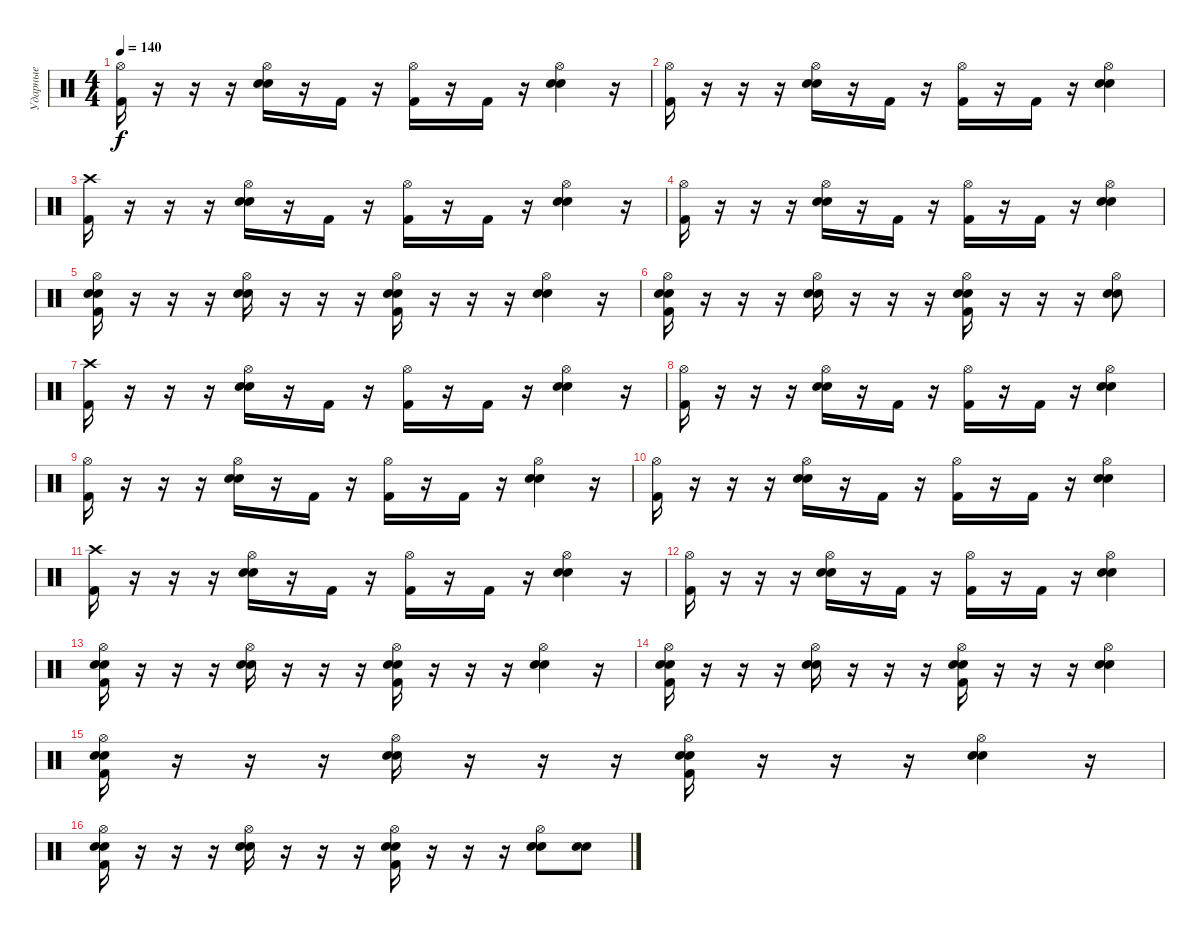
\track ("Ударные" "Ударные") {instrument percussion}
\staff {score}
\articulation defaults
\ts (4 4)
\tempo 140
\clef neutral
\ks c
("Hi-Hat (open)" "Kick (hit) 2").16{dy f} r.16 r.16 r.16 ("Hi-Hat (open)" "Electric Snare (hit)" "Snare (hit) 2").16 r.16 "Kick (hit) 2".16 r.16 ("Hi-Hat (open)" "Kick (hit) 2").16 r.16 "Kick (hit) 2".16 r.16 ("Hi-Hat (open)" "Electric Snare (hit)" "Snare (hit) 2").4 r.16 |
("Hi-Hat (open)" "Kick (hit) 2").16 r.16 r.16 r.16 ("Hi-Hat (open)" "Electric Snare (hit)" "Snare (hit) 2").16 r.16 "Kick (hit) 2".16 r.16 ("Hi-Hat (open)" "Kick (hit) 2").16 r.16 "Kick (hit) 2".16 r.16 ("Hi-Hat (open)" "Electric Snare (hit)" "Snare (hit) 2").4 |
("Crash high (hit)" "Kick (hit) 2").16 r.16 r.16 r.16 ("Hi-Hat (open)" "Electric Snare (hit)" "Snare (hit) 2").16 r.16 "Kick (hit) 2".16 r.16 ("Hi-Hat (open)" "Kick (hit) 2").16 r.16 "Kick (hit) 2".16 r.16 ("Hi-Hat (open)" "Electric Snare (hit)" "Snare (hit) 2").4 r.16 |
("Hi-Hat (open)" "Kick (hit) 2").16 r.16 r.16 r.16 ("Hi-Hat (open)" "Electric Snare (hit)" "Snare (hit) 2").16 r.16 "Kick (hit) 2".16 r.16 ("Hi-Hat (open)" "Kick (hit) 2").16 r.16 "Kick (hit) 2".16 r.16 ("Hi-Hat (open)" "Electric Snare (hit)" "Snare (hit) 2").4 |
("Hi-Hat (open)" "Kick (hit) 2" "Electric Snare (hit)" "Snare (hit) 2").16 r.16 r.16 r.16 ("Hi-Hat (open)" "Electric Snare (hit)" "Snare (hit) 2").16 r.16 r.16 r.16 ("Hi-Hat (open)" "Kick (hit) 2" "Electric Snare (hit)" "Snare (hit) 2").16 r.16 r.16 r.16 ("Hi-Hat (open)" "Electric Snare (hit)" "Snare (hit) 2").4 r.16 |
("Hi-Hat (open)" "Kick (hit) 2" "Electric Snare (hit)" "Snare (hit) 2").16 r.16 r.16 r.16 ("Hi-Hat (open)" "Electric Snare (hit)" "Snare (hit) 2").16 r.16 r.16 r.16 ("Hi-Hat (open)" "Kick (hit) 2" "Electric Snare (hit)" "Snare (hit) 2").16 r.16 r.16 r.16 ("Hi-Hat (open)" "Electric Snare (hit)" "Snare (hit) 2").8 |
("Crash high (hit)" "Kick (hit) 2").16 r.16 r.16 r.16 ("Hi-Hat (open)" "Electric Snare (hit)" "Snare (hit) 2").16 r.16 "Kick (hit) 2".16 r.16 ("Hi-Hat (open)" "Kick (hit) 2").16 r.16 "Kick (hit) 2".16 r.16 ("Hi-Hat (open)" "Electric Snare (hit)" "Snare (hit) 2").4 r.16 |
("Hi-Hat (open)" "Kick (hit) 2").16 r.16 r.16 r.16 ("Hi-Hat (open)" "Electric Snare (hit)" "Snare (hit) 2").16 r.16 "Kick (hit) 2".16 r.16 ("Hi-Hat (open)" "Kick (hit) 2").16 r.16 "Kick (hit) 2".16 r.16 ("Hi-Hat (open)" "Electric Snare (hit)" "Snare (hit) 2").4 |
("Hi-Hat (open)" "Kick (hit) 2").16 r.16 r.16 r.16 ("Hi-Hat (open)" "Electric Snare (hit)" "Snare (hit) 2").16 r.16 "Kick (hit) 2".16 r.16 ("Hi-Hat (open)" "Kick (hit) 2").16 r.16 "Kick (hit) 2".16 r.16 ("Hi-Hat (open)" "Electric Snare (hit)" "Snare (hit) 2").4 r.16 |
("Hi-Hat (open)" "Kick (hit) 2").16 r.16 r.16 r.16 ("Hi-Hat (open)" "Electric Snare (hit)" "Snare (hit) 2").16 r.16 "Kick (hit) 2".16 r.16 ("Hi-Hat (open)" "Kick (hit) 2").16 r.16 "Kick (hit) 2".16 r.16 ("Hi-Hat (open)" "Electric Snare (hit)" "Snare (hit) 2").4 |
("Crash high (hit)" "Kick (hit) 2").16 r.16 r.16 r.16 ("Hi-Hat (open)" "Electric Snare (hit)" "Snare (hit) 2").16 r.16 "Kick (hit) 2".16 r.16 ("Hi-Hat (open)" "Kick (hit) 2").16 r.16 "Kick (hit) 2".16 r.16 ("Hi-Hat (open)" "Electric Snare (hit)" "Snare (hit) 2").4 r.16 |
("Hi-Hat (open)" "Kick (hit) 2").16 r.16 r.16 r.16 ("Hi-Hat (open)" "Electric Snare (hit)" "Snare (hit) 2").16 r.16 "Kick (hit) 2".16 r.16 ("Hi-Hat (open)" "Kick (hit) 2").16 r.16 "Kick (hit) 2".16 r.16 ("Hi-Hat (open)" "Electric Snare (hit)" "Snare (hit) 2").4 |
("Hi-Hat (open)" "Kick (hit) 2" "Electric Snare (hit)" "Snare (hit) 2").16 r.16 r.16 r.16 ("Hi-Hat (open)" "Electric Snare (hit)" "Snare (hit) 2").16 r.16 r.16 r.16 ("Hi-Hat (open)" "Kick (hit) 2" "Electric Snare (hit)" "Snare (hit) 2").16 r.16 r.16 r.16 ("Hi-Hat (open)" "Electric Snare (hit)" "Snare (hit) 2").4 r.16 |
("Hi-Hat (open)" "Kick (hit) 2" "Electric Snare (hit)" "Snare (hit) 2").16 r.16 r.16 r.16 ("Hi-Hat (open)" "Electric Snare (hit)" "Snare (hit) 2").16 r.16 r.16 r.16 ("Hi-Hat (open)" "Kick (hit) 2" "Electric Snare (hit)" "Snare (hit) 2").16 r.16 r.16 r.16 ("Hi-Hat (open)" "Electric Snare (hit)" "Snare (hit) 2").4 |
("Hi-Hat (open)" "Kick (hit) 2" "Electric Snare (hit)" "Snare (hit) 2").16 r.16 r.16 r.16 ("Hi-Hat (open)" "Electric Snare (hit)" "Snare (hit) 2").16 r.16 r.16 r.16 ("Hi-Hat (open)" "Kick (hit) 2" "Electric Snare (hit)" "Snare (hit) 2").16 r.16 r.16 r.16 ("Hi-Hat (open)" "Electric Snare (hit)" "Snare (hit) 2").4 r.16 |
("Hi-Hat (open)" "Kick (hit) 2" "Electric Snare (hit)" "Snare (hit) 2").16 r.16 r.16 r.16 ("Hi-Hat (open)" "Electric Snare (hit)" "Snare (hit) 2").16 r.16 r.16 r.16 ("Hi-Hat (open)" "Kick (hit) 2" "Electric Snare (hit)" "Snare (hit) 2").16 r.16 r.16 r.16 ("Hi-Hat (open)" "Electric Snare (hit)" "Snare (hit) 2").8 ("Electric Snare (hit)" "Snare (hit) 2").8
